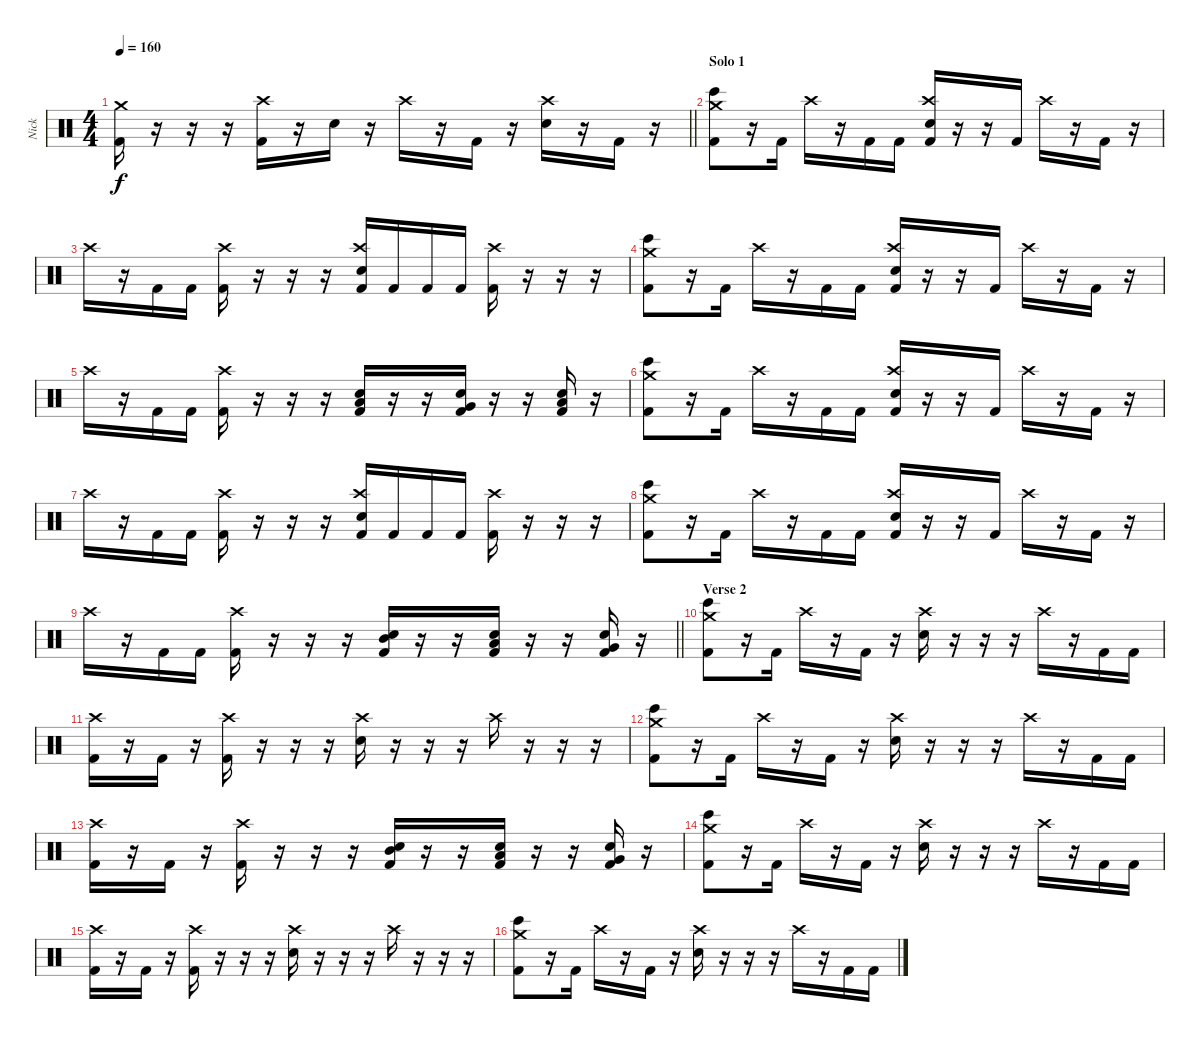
\track ("Nick" "Nick") {instrument percussion}
\staff {score}
\articulation defaults
\ts (4 4)
\tempo 160
\clef neutral
\barLineRight lightlight
\ks c
("Kick (hit) 2" "Crash medium (hit)").16{dy f} r.16 r.16 r.16 ("Kick (hit) 2" "Crash high (hit)").16 r.16 "Electric Snare (hit)".16 r.16 "Crash high (hit)".16 r.16 "Kick (hit) 2".16 r.16 ("Electric Snare (hit)" "Crash high (hit)").16 r.16 "Kick (hit) 2".16 r.16 |
\section ("" "Solo 1")
("Kick (hit) 2" "Bongo High (hit)" "Crash medium (hit)").8 r.16 "Kick (hit) 2".16 "Crash high (hit)".16 r.16 "Kick (hit) 2".16 "Kick (hit) 2".16 ("Kick (hit) 2" "Electric Snare (hit)" "Crash high (hit)").16 r.16 r.16 "Kick (hit) 2".16 "Crash high (hit)".16 r.16 "Kick (hit) 2".16 r.16 |
"Crash high (hit)".16 r.16 "Kick (hit) 2".16 "Kick (hit) 2".16 ("Kick (hit) 2" "Crash high (hit)").16 r.16 r.16 r.16 ("Kick (hit) 2" "Electric Snare (hit)" "Crash high (hit)").16 "Kick (hit) 2".16 "Kick (hit) 2".16 "Kick (hit) 2".16 ("Kick (hit) 2" "Crash high (hit)").16 r.16 r.16 r.16 |
("Kick (hit) 2" "Bongo High (hit)" "Crash medium (hit)").8 r.16 "Kick (hit) 2".16 "Crash high (hit)".16 r.16 "Kick (hit) 2".16 "Kick (hit) 2".16 ("Kick (hit) 2" "Electric Snare (hit)" "Crash high (hit)").16 r.16 r.16 "Kick (hit) 2".16 "Crash high (hit)".16 r.16 "Kick (hit) 2".16 r.16 |
"Crash high (hit)".16 r.16 "Kick (hit) 2".16 "Kick (hit) 2".16 ("Kick (hit) 2" "Crash high (hit)").16 r.16 r.16 r.16 ("Kick (hit) 2" "Electric Snare (hit)" "Low Floor Tom (hit)").16 r.16 r.16 ("Kick (hit) 2" "Electric Snare (hit)" "Very Low Tom (hit)").16 r.16 r.16 ("Kick (hit) 2" "Electric Snare (hit)" "Low Tom (hit)").16 r.16 |
("Kick (hit) 2" "Bongo High (hit)" "Crash medium (hit)").8 r.16 "Kick (hit) 2".16 "Crash high (hit)".16 r.16 "Kick (hit) 2".16 "Kick (hit) 2".16 ("Kick (hit) 2" "Electric Snare (hit)" "Crash high (hit)").16 r.16 r.16 "Kick (hit) 2".16 "Crash high (hit)".16 r.16 "Kick (hit) 2".16 r.16 |
"Crash high (hit)".16 r.16 "Kick (hit) 2".16 "Kick (hit) 2".16 ("Kick (hit) 2" "Crash high (hit)").16 r.16 r.16 r.16 ("Kick (hit) 2" "Electric Snare (hit)" "Crash high (hit)").16 "Kick (hit) 2".16 "Kick (hit) 2".16 "Kick (hit) 2".16 ("Kick (hit) 2" "Crash high (hit)").16 r.16 r.16 r.16 |
("Kick (hit) 2" "Bongo High (hit)" "Crash medium (hit)").8 r.16 "Kick (hit) 2".16 "Crash high (hit)".16 r.16 "Kick (hit) 2".16 "Kick (hit) 2".16 ("Kick (hit) 2" "Electric Snare (hit)" "Crash high (hit)").16 r.16 r.16 "Kick (hit) 2".16 "Crash high (hit)".16 r.16 "Kick (hit) 2".16 r.16 |
\barLineRight lightlight "Crash high (hit)".16
r.16 "Kick (hit) 2".16 "Kick (hit) 2".16 ("Kick (hit) 2" "Crash high (hit)").16 r.16 r.16 r.16 ("Kick (hit) 2" "Electric Snare (hit)" "Mid Tom (hit)").16 r.16 r.16 ("Kick (hit) 2" "Electric Snare (hit)" "Low Tom (hit)").16 r.16 r.16 ("Kick (hit) 2" "Electric Snare (hit)" "Very Low Tom (hit)").16 r.16 |
\section ("" "Verse 2")
("Kick (hit) 2" "Bongo High (hit)" "Crash medium (hit)").8 r.16 "Kick (hit) 2".16 "Crash high (hit)".16 r.16 "Kick (hit) 2".16 r.16 ("Electric Snare (hit)" "Crash high (hit)").16 r.16 r.16 r.16 "Crash high (hit)".16 r.16 "Kick (hit) 2".16 "Kick (hit) 2".16 |
("Kick (hit) 2" "Crash high (hit)").16 r.16 "Kick (hit) 2".16 r.16 ("Kick (hit) 2" "Crash high (hit)").16 r.16 r.16 r.16 ("Electric Snare (hit)" "Crash high (hit)").16 r.16 r.16 r.16 "Crash high (hit)".16 r.16 r.16 r.16 |
("Kick (hit) 2" "Bongo High (hit)" "Crash medium (hit)").8 r.16 "Kick (hit) 2".16 "Crash high (hit)".16 r.16 "Kick (hit) 2".16 r.16 ("Electric Snare (hit)" "Crash high (hit)").16 r.16 r.16 r.16 "Crash high (hit)".16 r.16 "Kick (hit) 2".16 "Kick (hit) 2".16 |
("Kick (hit) 2" "Crash high (hit)").16 r.16 "Kick (hit) 2".16 r.16 ("Kick (hit) 2" "Crash high (hit)").16 r.16 r.16 r.16 ("Kick (hit) 2" "Electric Snare (hit)" "Mid Tom (hit)").16 r.16 r.16 ("Kick (hit) 2" "Electric Snare (hit)" "Low Tom (hit)").16 r.16 r.16 ("Kick (hit) 2" "Electric Snare (hit)" "Very Low Tom (hit)").16 r.16 |
("Kick (hit) 2" "Bongo High (hit)" "Crash medium (hit)").8 r.16 "Kick (hit) 2".16 "Crash high (hit)".16 r.16 "Kick (hit) 2".16 r.16 ("Electric Snare (hit)" "Crash high (hit)").16 r.16 r.16 r.16 "Crash high (hit)".16 r.16 "Kick (hit) 2".16 "Kick (hit) 2".16 |
("Kick (hit) 2" "Crash high (hit)").16 r.16 "Kick (hit) 2".16 r.16 ("Kick (hit) 2" "Crash high (hit)").16 r.16 r.16 r.16 ("Electric Snare (hit)" "Crash high (hit)").16 r.16 r.16 r.16 "Crash high (hit)".16 r.16 r.16 r.16 |
("Kick (hit) 2" "Bongo High (hit)" "Crash medium (hit)").8 r.16 "Kick (hit) 2".16 "Crash high (hit)".16 r.16 "Kick (hit) 2".16 r.16 ("Electric Snare (hit)" "Crash high (hit)").16 r.16 r.16 r.16 "Crash high (hit)".16 r.16 "Kick (hit) 2".16 "Kick (hit) 2".16
